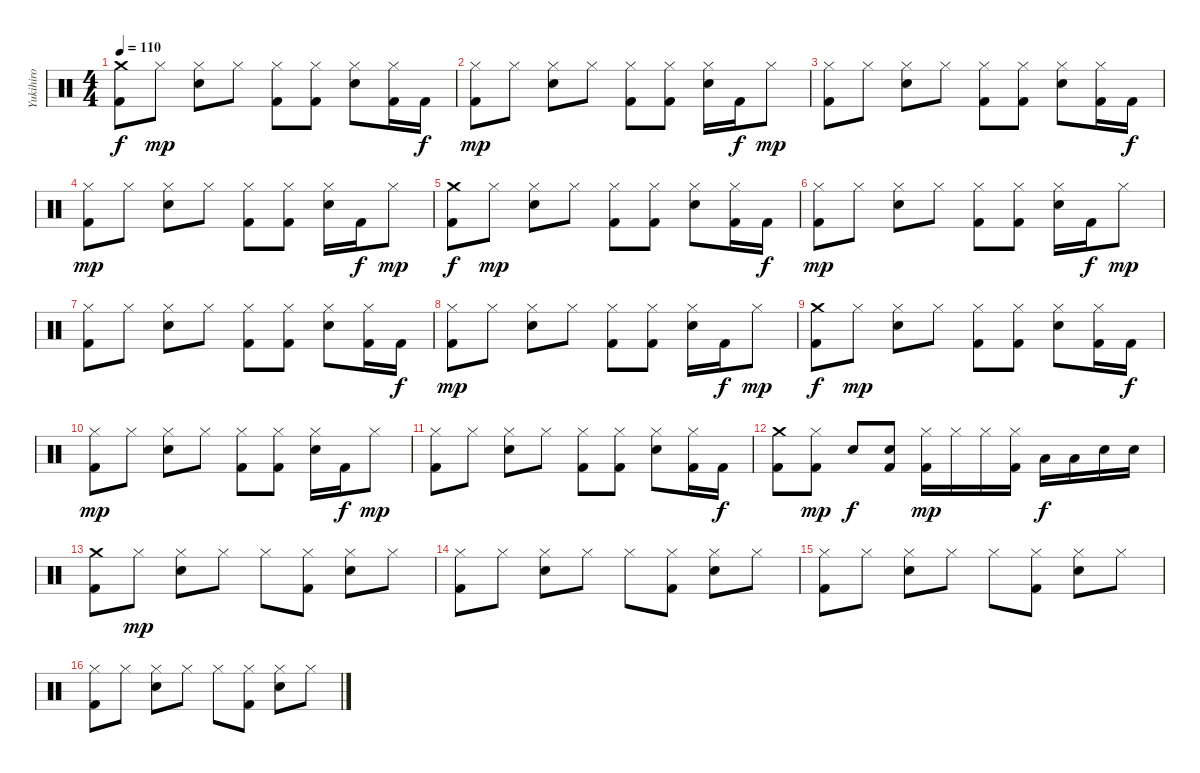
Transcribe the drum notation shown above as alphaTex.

\track ("Yukihiro " "Yukihiro ") {instrument percussion}
\staff {score}
\articulation defaults
\ts (4 4)
\tempo 110
\clef neutral
\ks c
("Crash medium (hit)" "Kick (hit) 2").8{dy f} "Hi-Hat (closed)".8{dy mp} ("Hi-Hat (closed)" "Electric Snare (hit)").8 "Hi-Hat (closed)".8 ("Hi-Hat (closed)" "Kick (hit) 2").8 ("Hi-Hat (closed)" "Kick (hit) 2").8 ("Hi-Hat (closed)" "Electric Snare (hit)").8 ("Hi-Hat (closed)" "Kick (hit) 2").16 "Kick (hit) 2".16{dy f} |
("Hi-Hat (closed)" "Kick (hit) 2").8{dy mp} "Hi-Hat (closed)".8 ("Hi-Hat (closed)" "Electric Snare (hit)").8 "Hi-Hat (closed)".8 ("Hi-Hat (closed)" "Kick (hit) 2").8 ("Hi-Hat (closed)" "Kick (hit) 2").8 ("Hi-Hat (closed)" "Electric Snare (hit)").16 "Kick (hit) 2".16{dy f} "Hi-Hat (closed)".8{dy mp} |
("Hi-Hat (closed)" "Kick (hit) 2").8 "Hi-Hat (closed)".8 ("Hi-Hat (closed)" "Electric Snare (hit)").8 "Hi-Hat (closed)".8 ("Hi-Hat (closed)" "Kick (hit) 2").8 ("Hi-Hat (closed)" "Kick (hit) 2").8 ("Hi-Hat (closed)" "Electric Snare (hit)").8 ("Hi-Hat (closed)" "Kick (hit) 2").16 "Kick (hit) 2".16{dy f} |
("Hi-Hat (closed)" "Kick (hit) 2").8{dy mp} "Hi-Hat (closed)".8 ("Hi-Hat (closed)" "Electric Snare (hit)").8 "Hi-Hat (closed)".8 ("Hi-Hat (closed)" "Kick (hit) 2").8 ("Hi-Hat (closed)" "Kick (hit) 2").8 ("Hi-Hat (closed)" "Electric Snare (hit)").16 "Kick (hit) 2".16{dy f} "Hi-Hat (closed)".8{dy mp} |
("Crash medium (hit)" "Kick (hit) 2").8{dy f} "Hi-Hat (closed)".8{dy mp} ("Hi-Hat (closed)" "Electric Snare (hit)").8 "Hi-Hat (closed)".8 ("Hi-Hat (closed)" "Kick (hit) 2").8 ("Hi-Hat (closed)" "Kick (hit) 2").8 ("Hi-Hat (closed)" "Electric Snare (hit)").8 ("Hi-Hat (closed)" "Kick (hit) 2").16 "Kick (hit) 2".16{dy f} |
("Hi-Hat (closed)" "Kick (hit) 2").8{dy mp} "Hi-Hat (closed)".8 ("Hi-Hat (closed)" "Electric Snare (hit)").8 "Hi-Hat (closed)".8 ("Hi-Hat (closed)" "Kick (hit) 2").8 ("Hi-Hat (closed)" "Kick (hit) 2").8 ("Hi-Hat (closed)" "Electric Snare (hit)").16 "Kick (hit) 2".16{dy f} "Hi-Hat (closed)".8{dy mp} |
("Hi-Hat (closed)" "Kick (hit) 2").8 "Hi-Hat (closed)".8 ("Hi-Hat (closed)" "Electric Snare (hit)").8 "Hi-Hat (closed)".8 ("Hi-Hat (closed)" "Kick (hit) 2").8 ("Hi-Hat (closed)" "Kick (hit) 2").8 ("Hi-Hat (closed)" "Electric Snare (hit)").8 ("Hi-Hat (closed)" "Kick (hit) 2").16 "Kick (hit) 2".16{dy f} |
("Hi-Hat (closed)" "Kick (hit) 2").8{dy mp} "Hi-Hat (closed)".8 ("Hi-Hat (closed)" "Electric Snare (hit)").8 "Hi-Hat (closed)".8 ("Hi-Hat (closed)" "Kick (hit) 2").8 ("Hi-Hat (closed)" "Kick (hit) 2").8 ("Hi-Hat (closed)" "Electric Snare (hit)").16 "Kick (hit) 2".16{dy f} "Hi-Hat (closed)".8{dy mp} |
("Crash medium (hit)" "Kick (hit) 2").8{dy f} "Hi-Hat (closed)".8{dy mp} ("Hi-Hat (closed)" "Electric Snare (hit)").8 "Hi-Hat (closed)".8 ("Hi-Hat (closed)" "Kick (hit) 2").8 ("Hi-Hat (closed)" "Kick (hit) 2").8 ("Hi-Hat (closed)" "Electric Snare (hit)").8 ("Hi-Hat (closed)" "Kick (hit) 2").16 "Kick (hit) 2".16{dy f} |
("Hi-Hat (closed)" "Kick (hit) 2").8{dy mp} "Hi-Hat (closed)".8 ("Hi-Hat (closed)" "Electric Snare (hit)").8 "Hi-Hat (closed)".8 ("Hi-Hat (closed)" "Kick (hit) 2").8 ("Hi-Hat (closed)" "Kick (hit) 2").8 ("Hi-Hat (closed)" "Electric Snare (hit)").16 "Kick (hit) 2".16{dy f} "Hi-Hat (closed)".8{dy mp} |
("Hi-Hat (closed)" "Kick (hit) 2").8 "Hi-Hat (closed)".8 ("Hi-Hat (closed)" "Electric Snare (hit)").8 "Hi-Hat (closed)".8 ("Hi-Hat (closed)" "Kick (hit) 2").8 ("Hi-Hat (closed)" "Kick (hit) 2").8 ("Hi-Hat (closed)" "Electric Snare (hit)").8 ("Hi-Hat (closed)" "Kick (hit) 2").16 "Kick (hit) 2".16{dy f} |
("Crash medium (hit)" "Kick (hit) 2").8 ("Hi-Hat (closed)" "Kick (hit) 2").8{dy mp} "Electric Snare (hit)".8{dy f} ("Electric Snare (hit)" "Kick (hit) 2").8 ("Hi-Hat (closed)" "Kick (hit) 2").16{dy mp} "Hi-Hat (closed)".16 "Hi-Hat (closed)".16 ("Hi-Hat (closed)" "Kick (hit) 2").16 "Low Tom (hit)".16{dy f} "Low Floor Tom (hit)".16 "Electric Snare (hit)".16 "Electric Snare (hit)".16 |
("Crash medium (hit)" "Kick (hit) 2").8 "Hi-Hat (closed)".8{dy mp} ("Hi-Hat (closed)" "Electric Snare (hit)").8 "Hi-Hat (closed)".8 "Hi-Hat (closed)".8 ("Hi-Hat (closed)" "Kick (hit) 2").8 ("Hi-Hat (closed)" "Electric Snare (hit)").8 "Hi-Hat (closed)".8 |
("Hi-Hat (closed)" "Kick (hit) 2").8 "Hi-Hat (closed)".8 ("Hi-Hat (closed)" "Electric Snare (hit)").8 "Hi-Hat (closed)".8 "Hi-Hat (closed)".8 ("Hi-Hat (closed)" "Kick (hit) 2").8 ("Hi-Hat (closed)" "Electric Snare (hit)").8 "Hi-Hat (closed)".8 |
("Hi-Hat (closed)" "Kick (hit) 2").8 "Hi-Hat (closed)".8 ("Hi-Hat (closed)" "Electric Snare (hit)").8 "Hi-Hat (closed)".8 "Hi-Hat (closed)".8 ("Hi-Hat (closed)" "Kick (hit) 2").8 ("Hi-Hat (closed)" "Electric Snare (hit)").8 "Hi-Hat (closed)".8 |
("Hi-Hat (closed)" "Kick (hit) 2").8 "Hi-Hat (closed)".8 ("Hi-Hat (closed)" "Electric Snare (hit)").8 "Hi-Hat (closed)".8 "Hi-Hat (closed)".8 ("Hi-Hat (closed)" "Kick (hit) 2").8 ("Hi-Hat (closed)" "Electric Snare (hit)").8 "Hi-Hat (closed)".8
